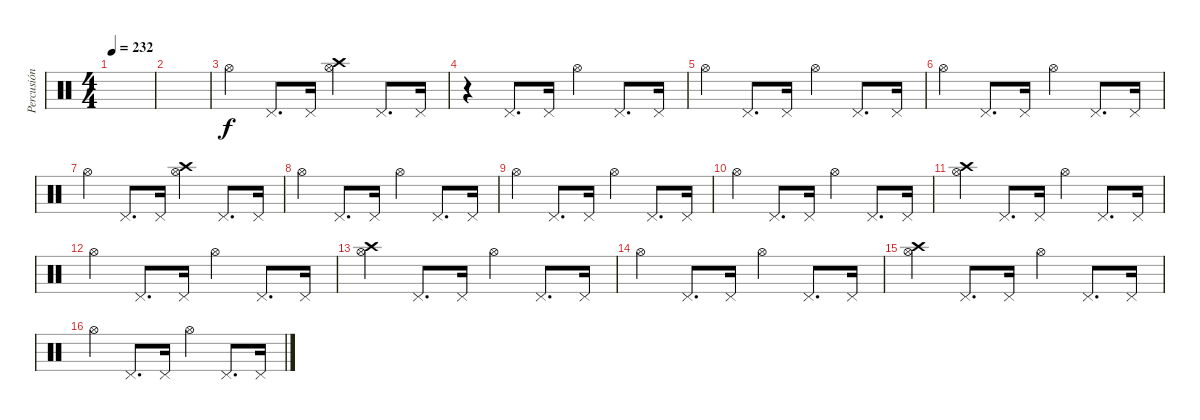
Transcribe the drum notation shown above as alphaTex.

\track ("Percusión" "Percusión") {instrument percussion}
\staff {score}
\articulation defaults
\ts (4 4)
\tempo 232
\clef neutral
\ks c
|
|
"Hi-Hat (open)".4 "Pedal Hi-Hat (hit)".8{d} "Pedal Hi-Hat (hit)".16 ("Hi-Hat (open)" "Crash high (hit)").4 "Pedal Hi-Hat (hit)".8{d} "Pedal Hi-Hat (hit)".16 |
r.4 "Pedal Hi-Hat (hit)".8{d} "Pedal Hi-Hat (hit)".16 "Hi-Hat (open)".4 "Pedal Hi-Hat (hit)".8{d} "Pedal Hi-Hat (hit)".16 |
"Hi-Hat (open)".4 "Pedal Hi-Hat (hit)".8{d} "Pedal Hi-Hat (hit)".16 "Hi-Hat (open)".4 "Pedal Hi-Hat (hit)".8{d} "Pedal Hi-Hat (hit)".16 |
"Hi-Hat (open)".4 "Pedal Hi-Hat (hit)".8{d} "Pedal Hi-Hat (hit)".16 "Hi-Hat (open)".4 "Pedal Hi-Hat (hit)".8{d} "Pedal Hi-Hat (hit)".16 |
"Hi-Hat (open)".4 "Pedal Hi-Hat (hit)".8{d} "Pedal Hi-Hat (hit)".16 ("Hi-Hat (open)" "Crash high (hit)").4 "Pedal Hi-Hat (hit)".8{d} "Pedal Hi-Hat (hit)".16 |
"Hi-Hat (open)".4 "Pedal Hi-Hat (hit)".8{d} "Pedal Hi-Hat (hit)".16 "Hi-Hat (open)".4 "Pedal Hi-Hat (hit)".8{d} "Pedal Hi-Hat (hit)".16 |
"Hi-Hat (open)".4 "Pedal Hi-Hat (hit)".8{d} "Pedal Hi-Hat (hit)".16 "Hi-Hat (open)".4 "Pedal Hi-Hat (hit)".8{d} "Pedal Hi-Hat (hit)".16 |
"Hi-Hat (open)".4 "Pedal Hi-Hat (hit)".8{d} "Pedal Hi-Hat (hit)".16 "Hi-Hat (open)".4 "Pedal Hi-Hat (hit)".8{d} "Pedal Hi-Hat (hit)".16 |
("Hi-Hat (open)" "Crash high (hit)").4 "Pedal Hi-Hat (hit)".8{d} "Pedal Hi-Hat (hit)".16 "Hi-Hat (open)".4 "Pedal Hi-Hat (hit)".8{d} "Pedal Hi-Hat (hit)".16 |
"Hi-Hat (open)".4 "Pedal Hi-Hat (hit)".8{d} "Pedal Hi-Hat (hit)".16 "Hi-Hat (open)".4 "Pedal Hi-Hat (hit)".8{d} "Pedal Hi-Hat (hit)".16 |
("Hi-Hat (open)" "Crash high (hit)").4 "Pedal Hi-Hat (hit)".8{d} "Pedal Hi-Hat (hit)".16 "Hi-Hat (open)".4 "Pedal Hi-Hat (hit)".8{d} "Pedal Hi-Hat (hit)".16 |
"Hi-Hat (open)".4 "Pedal Hi-Hat (hit)".8{d} "Pedal Hi-Hat (hit)".16 "Hi-Hat (open)".4 "Pedal Hi-Hat (hit)".8{d} "Pedal Hi-Hat (hit)".16 |
("Hi-Hat (open)" "Crash high (hit)").4 "Pedal Hi-Hat (hit)".8{d} "Pedal Hi-Hat (hit)".16 "Hi-Hat (open)".4 "Pedal Hi-Hat (hit)".8{d} "Pedal Hi-Hat (hit)".16 |
"Hi-Hat (open)".4 "Pedal Hi-Hat (hit)".8{d} "Pedal Hi-Hat (hit)".16 "Hi-Hat (open)".4 "Pedal Hi-Hat (hit)".8{d} "Pedal Hi-Hat (hit)".16
